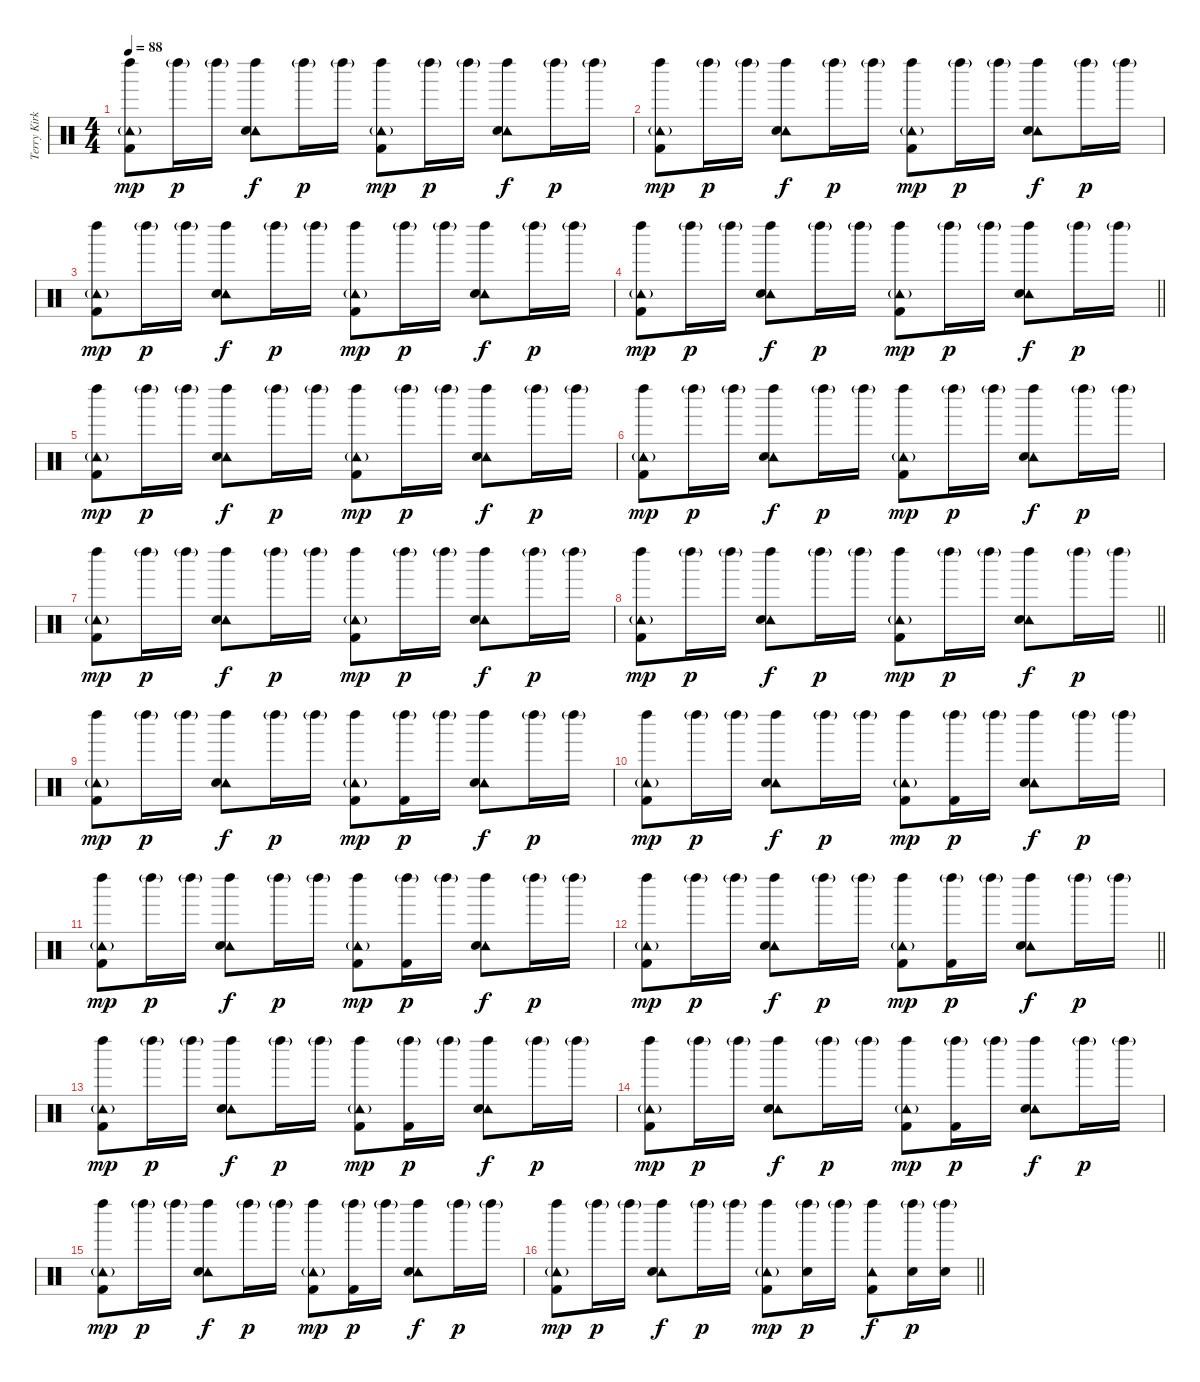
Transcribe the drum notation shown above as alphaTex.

\track ("Terry Kirkbride " "Terry Kirk") {instrument percussion}
\staff {score}
\articulation defaults
\ts (4 4)
\tempo 88
\clef neutral
\ks c
("Left Maraca (hit)" "Tambourine (hit)"{g} "Kick (hit) 2").8{dy mp} "Left Maraca (hit)"{g}.16{dy p} "Left Maraca (hit)"{g}.16 ("Left Maraca (hit)" "Tambourine (hit)" "Snare (hit) 2").8{dy f} "Left Maraca (hit)"{g}.16{dy p} "Left Maraca (hit)"{g}.16 ("Left Maraca (hit)" "Tambourine (hit)"{g} "Kick (hit) 2").8{dy mp} "Left Maraca (hit)"{g}.16{dy p} "Left Maraca (hit)"{g}.16 ("Left Maraca (hit)" "Tambourine (hit)" "Snare (hit) 2").8{dy f} "Left Maraca (hit)"{g}.16{dy p} "Left Maraca (hit)"{g}.16 |
("Left Maraca (hit)" "Tambourine (hit)"{g} "Kick (hit) 2").8{dy mp} "Left Maraca (hit)"{g}.16{dy p} "Left Maraca (hit)"{g}.16 ("Left Maraca (hit)" "Tambourine (hit)" "Snare (hit) 2").8{dy f} "Left Maraca (hit)"{g}.16{dy p} "Left Maraca (hit)"{g}.16 ("Left Maraca (hit)" "Tambourine (hit)"{g} "Kick (hit) 2").8{dy mp} "Left Maraca (hit)"{g}.16{dy p} "Left Maraca (hit)"{g}.16 ("Left Maraca (hit)" "Tambourine (hit)" "Snare (hit) 2").8{dy f} "Left Maraca (hit)"{g}.16{dy p} "Left Maraca (hit)"{g}.16 |
("Left Maraca (hit)" "Tambourine (hit)"{g} "Kick (hit) 2").8{dy mp} "Left Maraca (hit)"{g}.16{dy p} "Left Maraca (hit)"{g}.16 ("Left Maraca (hit)" "Tambourine (hit)" "Snare (hit) 2").8{dy f} "Left Maraca (hit)"{g}.16{dy p} "Left Maraca (hit)"{g}.16 ("Left Maraca (hit)" "Tambourine (hit)"{g} "Kick (hit) 2").8{dy mp} "Left Maraca (hit)"{g}.16{dy p} "Left Maraca (hit)"{g}.16 ("Left Maraca (hit)" "Tambourine (hit)" "Snare (hit) 2").8{dy f} "Left Maraca (hit)"{g}.16{dy p} "Left Maraca (hit)"{g}.16 |
\barLineRight lightlight
("Left Maraca (hit)" "Tambourine (hit)"{g} "Kick (hit) 2").8{dy mp} "Left Maraca (hit)"{g}.16{dy p} "Left Maraca (hit)"{g}.16 ("Left Maraca (hit)" "Tambourine (hit)" "Snare (hit) 2").8{dy f} "Left Maraca (hit)"{g}.16{dy p} "Left Maraca (hit)"{g}.16 ("Left Maraca (hit)" "Tambourine (hit)"{g} "Kick (hit) 2").8{dy mp} "Left Maraca (hit)"{g}.16{dy p} "Left Maraca (hit)"{g}.16 ("Left Maraca (hit)" "Tambourine (hit)" "Snare (hit) 2").8{dy f} "Left Maraca (hit)"{g}.16{dy p} "Left Maraca (hit)"{g}.16 |
("Left Maraca (hit)" "Tambourine (hit)"{g} "Kick (hit) 2").8{dy mp} "Left Maraca (hit)"{g}.16{dy p} "Left Maraca (hit)"{g}.16 ("Left Maraca (hit)" "Tambourine (hit)" "Snare (hit) 2").8{dy f} "Left Maraca (hit)"{g}.16{dy p} "Left Maraca (hit)"{g}.16 ("Left Maraca (hit)" "Tambourine (hit)"{g} "Kick (hit) 2").8{dy mp} "Left Maraca (hit)"{g}.16{dy p} "Left Maraca (hit)"{g}.16 ("Left Maraca (hit)" "Tambourine (hit)" "Snare (hit) 2").8{dy f} "Left Maraca (hit)"{g}.16{dy p} "Left Maraca (hit)"{g}.16 |
("Left Maraca (hit)" "Tambourine (hit)"{g} "Kick (hit) 2").8{dy mp} "Left Maraca (hit)"{g}.16{dy p} "Left Maraca (hit)"{g}.16 ("Left Maraca (hit)" "Tambourine (hit)" "Snare (hit) 2").8{dy f} "Left Maraca (hit)"{g}.16{dy p} "Left Maraca (hit)"{g}.16 ("Left Maraca (hit)" "Tambourine (hit)"{g} "Kick (hit) 2").8{dy mp} "Left Maraca (hit)"{g}.16{dy p} "Left Maraca (hit)"{g}.16 ("Left Maraca (hit)" "Tambourine (hit)" "Snare (hit) 2").8{dy f} "Left Maraca (hit)"{g}.16{dy p} "Left Maraca (hit)"{g}.16 |
("Left Maraca (hit)" "Tambourine (hit)"{g} "Kick (hit) 2").8{dy mp} "Left Maraca (hit)"{g}.16{dy p} "Left Maraca (hit)"{g}.16 ("Left Maraca (hit)" "Tambourine (hit)" "Snare (hit) 2").8{dy f} "Left Maraca (hit)"{g}.16{dy p} "Left Maraca (hit)"{g}.16 ("Left Maraca (hit)" "Tambourine (hit)"{g} "Kick (hit) 2").8{dy mp} "Left Maraca (hit)"{g}.16{dy p} "Left Maraca (hit)"{g}.16 ("Left Maraca (hit)" "Tambourine (hit)" "Snare (hit) 2").8{dy f} "Left Maraca (hit)"{g}.16{dy p} "Left Maraca (hit)"{g}.16 |
\barLineRight lightlight
("Left Maraca (hit)" "Tambourine (hit)"{g} "Kick (hit) 2").8{dy mp} "Left Maraca (hit)"{g}.16{dy p} "Left Maraca (hit)"{g}.16 ("Left Maraca (hit)" "Tambourine (hit)" "Snare (hit) 2").8{dy f} "Left Maraca (hit)"{g}.16{dy p} "Left Maraca (hit)"{g}.16 ("Left Maraca (hit)" "Tambourine (hit)"{g} "Kick (hit) 2").8{dy mp} "Left Maraca (hit)"{g}.16{dy p} "Left Maraca (hit)"{g}.16 ("Left Maraca (hit)" "Tambourine (hit)" "Snare (hit) 2").8{dy f} "Left Maraca (hit)"{g}.16{dy p} "Left Maraca (hit)"{g}.16 |
("Left Maraca (hit)" "Tambourine (hit)"{g} "Kick (hit) 2").8{dy mp} "Left Maraca (hit)"{g}.16{dy p} "Left Maraca (hit)"{g}.16 ("Left Maraca (hit)" "Tambourine (hit)" "Snare (hit) 2").8{dy f} "Left Maraca (hit)"{g}.16{dy p} "Left Maraca (hit)"{g}.16 ("Left Maraca (hit)" "Tambourine (hit)"{g} "Kick (hit) 2").8{dy mp} ("Left Maraca (hit)"{g} "Kick (hit) 2").16{dy p} "Left Maraca (hit)"{g}.16 ("Left Maraca (hit)" "Tambourine (hit)" "Snare (hit) 2").8{dy f} "Left Maraca (hit)"{g}.16{dy p} "Left Maraca (hit)"{g}.16 |
("Left Maraca (hit)" "Tambourine (hit)"{g} "Kick (hit) 2").8{dy mp} "Left Maraca (hit)"{g}.16{dy p} "Left Maraca (hit)"{g}.16 ("Left Maraca (hit)" "Tambourine (hit)" "Snare (hit) 2").8{dy f} "Left Maraca (hit)"{g}.16{dy p} "Left Maraca (hit)"{g}.16 ("Left Maraca (hit)" "Tambourine (hit)"{g} "Kick (hit) 2").8{dy mp} ("Left Maraca (hit)"{g} "Kick (hit) 2").16{dy p} "Left Maraca (hit)"{g}.16 ("Left Maraca (hit)" "Tambourine (hit)" "Snare (hit) 2").8{dy f} "Left Maraca (hit)"{g}.16{dy p} "Left Maraca (hit)"{g}.16 |
("Left Maraca (hit)" "Tambourine (hit)"{g} "Kick (hit) 2").8{dy mp} "Left Maraca (hit)"{g}.16{dy p} "Left Maraca (hit)"{g}.16 ("Left Maraca (hit)" "Tambourine (hit)" "Snare (hit) 2").8{dy f} "Left Maraca (hit)"{g}.16{dy p} "Left Maraca (hit)"{g}.16 ("Left Maraca (hit)" "Tambourine (hit)"{g} "Kick (hit) 2").8{dy mp} ("Left Maraca (hit)"{g} "Kick (hit) 2").16{dy p} "Left Maraca (hit)"{g}.16 ("Left Maraca (hit)" "Tambourine (hit)" "Snare (hit) 2").8{dy f} "Left Maraca (hit)"{g}.16{dy p} "Left Maraca (hit)"{g}.16 |
\barLineRight lightlight
("Left Maraca (hit)" "Tambourine (hit)"{g} "Kick (hit) 2").8{dy mp} "Left Maraca (hit)"{g}.16{dy p} "Left Maraca (hit)"{g}.16 ("Left Maraca (hit)" "Tambourine (hit)" "Snare (hit) 2").8{dy f} "Left Maraca (hit)"{g}.16{dy p} "Left Maraca (hit)"{g}.16 ("Left Maraca (hit)" "Tambourine (hit)"{g} "Kick (hit) 2").8{dy mp} ("Left Maraca (hit)"{g} "Kick (hit) 2").16{dy p} "Left Maraca (hit)"{g}.16 ("Left Maraca (hit)" "Tambourine (hit)" "Snare (hit) 2").8{dy f} "Left Maraca (hit)"{g}.16{dy p} "Left Maraca (hit)"{g}.16 |
("Left Maraca (hit)" "Tambourine (hit)"{g} "Kick (hit) 2").8{dy mp} "Left Maraca (hit)"{g}.16{dy p} "Left Maraca (hit)"{g}.16 ("Left Maraca (hit)" "Tambourine (hit)" "Snare (hit) 2").8{dy f} "Left Maraca (hit)"{g}.16{dy p} "Left Maraca (hit)"{g}.16 ("Left Maraca (hit)" "Tambourine (hit)"{g} "Kick (hit) 2").8{dy mp} ("Left Maraca (hit)"{g} "Kick (hit) 2").16{dy p} "Left Maraca (hit)"{g}.16 ("Left Maraca (hit)" "Tambourine (hit)" "Snare (hit) 2").8{dy f} "Left Maraca (hit)"{g}.16{dy p} "Left Maraca (hit)"{g}.16 |
("Left Maraca (hit)" "Tambourine (hit)"{g} "Kick (hit) 2").8{dy mp} "Left Maraca (hit)"{g}.16{dy p} "Left Maraca (hit)"{g}.16 ("Left Maraca (hit)" "Tambourine (hit)" "Snare (hit) 2").8{dy f} "Left Maraca (hit)"{g}.16{dy p} "Left Maraca (hit)"{g}.16 ("Left Maraca (hit)" "Tambourine (hit)"{g} "Kick (hit) 2").8{dy mp} ("Left Maraca (hit)"{g} "Kick (hit) 2").16{dy p} "Left Maraca (hit)"{g}.16 ("Left Maraca (hit)" "Tambourine (hit)" "Snare (hit) 2").8{dy f} "Left Maraca (hit)"{g}.16{dy p} "Left Maraca (hit)"{g}.16 |
("Left Maraca (hit)" "Tambourine (hit)"{g} "Kick (hit) 2").8{dy mp} "Left Maraca (hit)"{g}.16{dy p} "Left Maraca (hit)"{g}.16 ("Left Maraca (hit)" "Tambourine (hit)" "Snare (hit) 2").8{dy f} "Left Maraca (hit)"{g}.16{dy p} "Left Maraca (hit)"{g}.16 ("Left Maraca (hit)" "Tambourine (hit)"{g} "Kick (hit) 2").8{dy mp} ("Left Maraca (hit)"{g} "Kick (hit) 2").16{dy p} "Left Maraca (hit)"{g}.16 ("Left Maraca (hit)" "Tambourine (hit)" "Snare (hit) 2").8{dy f} "Left Maraca (hit)"{g}.16{dy p} "Left Maraca (hit)"{g}.16 |
\barLineRight lightlight
("Left Maraca (hit)" "Tambourine (hit)"{g} "Kick (hit) 2").8{dy mp} "Left Maraca (hit)"{g}.16{dy p} "Left Maraca (hit)"{g}.16 ("Left Maraca (hit)" "Tambourine (hit)" "Snare (hit) 2").8{dy f} "Left Maraca (hit)"{g}.16{dy p} "Left Maraca (hit)"{g}.16 ("Left Maraca (hit)" "Tambourine (hit)"{g} "Kick (hit) 2").8{dy mp} ("Left Maraca (hit)"{g} "Snare (hit) 2").16{dy p} "Left Maraca (hit)"{g}.16 ("Left Maraca (hit)" "Tambourine (hit)" "Kick (hit) 2").8{dy f} ("Left Maraca (hit)"{g} "Snare (hit) 2").16{dy p} ("Left Maraca (hit)"{g} "Snare (hit) 2").16
